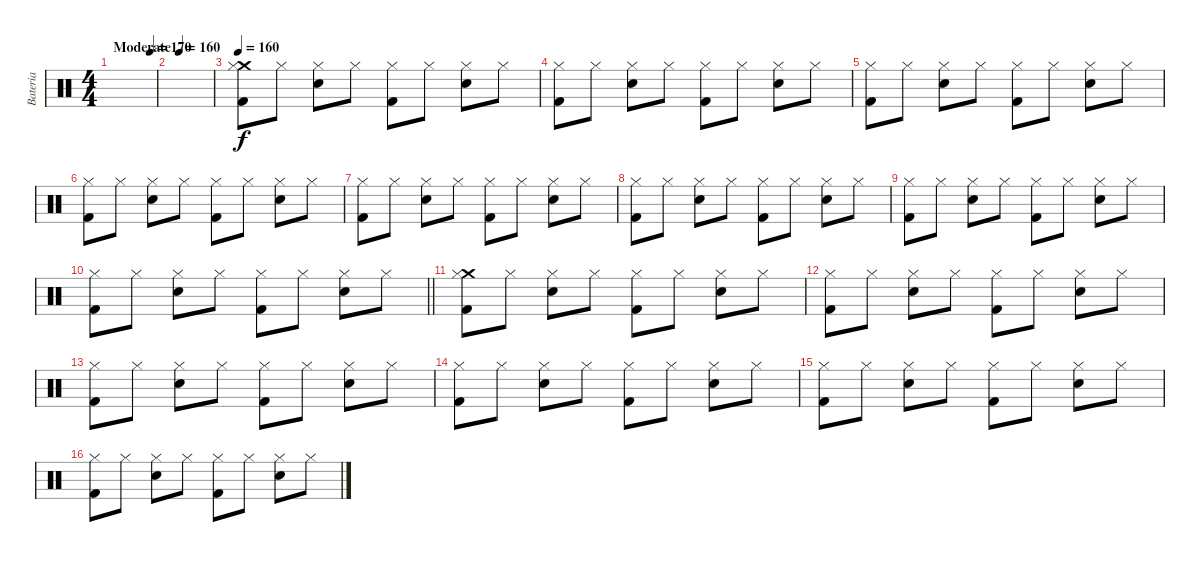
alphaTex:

\track ("Bateria" "Bateria") {instrument percussion}
\staff {score}
\articulation defaults
\ts (4 4)
\tempo (160 "Moderate")
\tempo (170 0.875)
\tempo (160 "Moderate")
\clef neutral
\ks c
|
|
\tempo 160
("Crash medium (hit)" "Hi-Hat (closed)" "Kick (hit) 2").8 "Hi-Hat (closed)".8 ("Hi-Hat (closed)" "Electric Snare (hit)").8 "Hi-Hat (closed)".8 ("Hi-Hat (closed)" "Kick (hit) 2").8 "Hi-Hat (closed)".8 ("Hi-Hat (closed)" "Electric Snare (hit)").8 "Hi-Hat (closed)".8 |
("Hi-Hat (closed)" "Kick (hit) 2").8 "Hi-Hat (closed)".8 ("Hi-Hat (closed)" "Electric Snare (hit)").8 "Hi-Hat (closed)".8 ("Hi-Hat (closed)" "Kick (hit) 2").8 "Hi-Hat (closed)".8 ("Hi-Hat (closed)" "Electric Snare (hit)").8 "Hi-Hat (closed)".8 |
("Hi-Hat (closed)" "Kick (hit) 2").8 "Hi-Hat (closed)".8 ("Hi-Hat (closed)" "Electric Snare (hit)").8 "Hi-Hat (closed)".8 ("Hi-Hat (closed)" "Kick (hit) 2").8 "Hi-Hat (closed)".8 ("Hi-Hat (closed)" "Electric Snare (hit)").8 "Hi-Hat (closed)".8 |
("Hi-Hat (closed)" "Kick (hit) 2").8 "Hi-Hat (closed)".8 ("Hi-Hat (closed)" "Electric Snare (hit)").8 "Hi-Hat (closed)".8 ("Hi-Hat (closed)" "Kick (hit) 2").8 "Hi-Hat (closed)".8 ("Hi-Hat (closed)" "Electric Snare (hit)").8 "Hi-Hat (closed)".8 |
("Hi-Hat (closed)" "Kick (hit) 2").8 "Hi-Hat (closed)".8 ("Hi-Hat (closed)" "Electric Snare (hit)").8 "Hi-Hat (closed)".8 ("Hi-Hat (closed)" "Kick (hit) 2").8 "Hi-Hat (closed)".8 ("Hi-Hat (closed)" "Electric Snare (hit)").8 "Hi-Hat (closed)".8 |
("Hi-Hat (closed)" "Kick (hit) 2").8 "Hi-Hat (closed)".8 ("Hi-Hat (closed)" "Electric Snare (hit)").8 "Hi-Hat (closed)".8 ("Hi-Hat (closed)" "Kick (hit) 2").8 "Hi-Hat (closed)".8 ("Hi-Hat (closed)" "Electric Snare (hit)").8 "Hi-Hat (closed)".8 |
("Hi-Hat (closed)" "Kick (hit) 2").8 "Hi-Hat (closed)".8 ("Hi-Hat (closed)" "Electric Snare (hit)").8 "Hi-Hat (closed)".8 ("Hi-Hat (closed)" "Kick (hit) 2").8 "Hi-Hat (closed)".8 ("Hi-Hat (closed)" "Electric Snare (hit)").8 "Hi-Hat (closed)".8 |
\barLineRight lightlight
("Hi-Hat (closed)" "Kick (hit) 2").8 "Hi-Hat (closed)".8 ("Hi-Hat (closed)" "Electric Snare (hit)").8 "Hi-Hat (closed)".8 ("Hi-Hat (closed)" "Kick (hit) 2").8 "Hi-Hat (closed)".8 ("Hi-Hat (closed)" "Electric Snare (hit)").8 "Hi-Hat (closed)".8 |
("Crash medium (hit)" "Hi-Hat (closed)" "Kick (hit) 2").8 "Hi-Hat (closed)".8 ("Hi-Hat (closed)" "Electric Snare (hit)").8 "Hi-Hat (closed)".8 ("Hi-Hat (closed)" "Kick (hit) 2").8 "Hi-Hat (closed)".8 ("Hi-Hat (closed)" "Electric Snare (hit)").8 "Hi-Hat (closed)".8 |
("Hi-Hat (closed)" "Kick (hit) 2").8 "Hi-Hat (closed)".8 ("Hi-Hat (closed)" "Electric Snare (hit)").8 "Hi-Hat (closed)".8 ("Hi-Hat (closed)" "Kick (hit) 2").8 "Hi-Hat (closed)".8 ("Hi-Hat (closed)" "Electric Snare (hit)").8 "Hi-Hat (closed)".8 |
("Hi-Hat (closed)" "Kick (hit) 2").8 "Hi-Hat (closed)".8 ("Hi-Hat (closed)" "Electric Snare (hit)").8 "Hi-Hat (closed)".8 ("Hi-Hat (closed)" "Kick (hit) 2").8 "Hi-Hat (closed)".8 ("Hi-Hat (closed)" "Electric Snare (hit)").8 "Hi-Hat (closed)".8 |
("Hi-Hat (closed)" "Kick (hit) 2").8 "Hi-Hat (closed)".8 ("Hi-Hat (closed)" "Electric Snare (hit)").8 "Hi-Hat (closed)".8 ("Hi-Hat (closed)" "Kick (hit) 2").8 "Hi-Hat (closed)".8 ("Hi-Hat (closed)" "Electric Snare (hit)").8 "Hi-Hat (closed)".8 |
("Hi-Hat (closed)" "Kick (hit) 2").8 "Hi-Hat (closed)".8 ("Hi-Hat (closed)" "Electric Snare (hit)").8 "Hi-Hat (closed)".8 ("Hi-Hat (closed)" "Kick (hit) 2").8 "Hi-Hat (closed)".8 ("Hi-Hat (closed)" "Electric Snare (hit)").8 "Hi-Hat (closed)".8 |
("Hi-Hat (closed)" "Kick (hit) 2").8 "Hi-Hat (closed)".8 ("Hi-Hat (closed)" "Electric Snare (hit)").8 "Hi-Hat (closed)".8 ("Hi-Hat (closed)" "Kick (hit) 2").8 "Hi-Hat (closed)".8 ("Hi-Hat (closed)" "Electric Snare (hit)").8 "Hi-Hat (closed)".8
